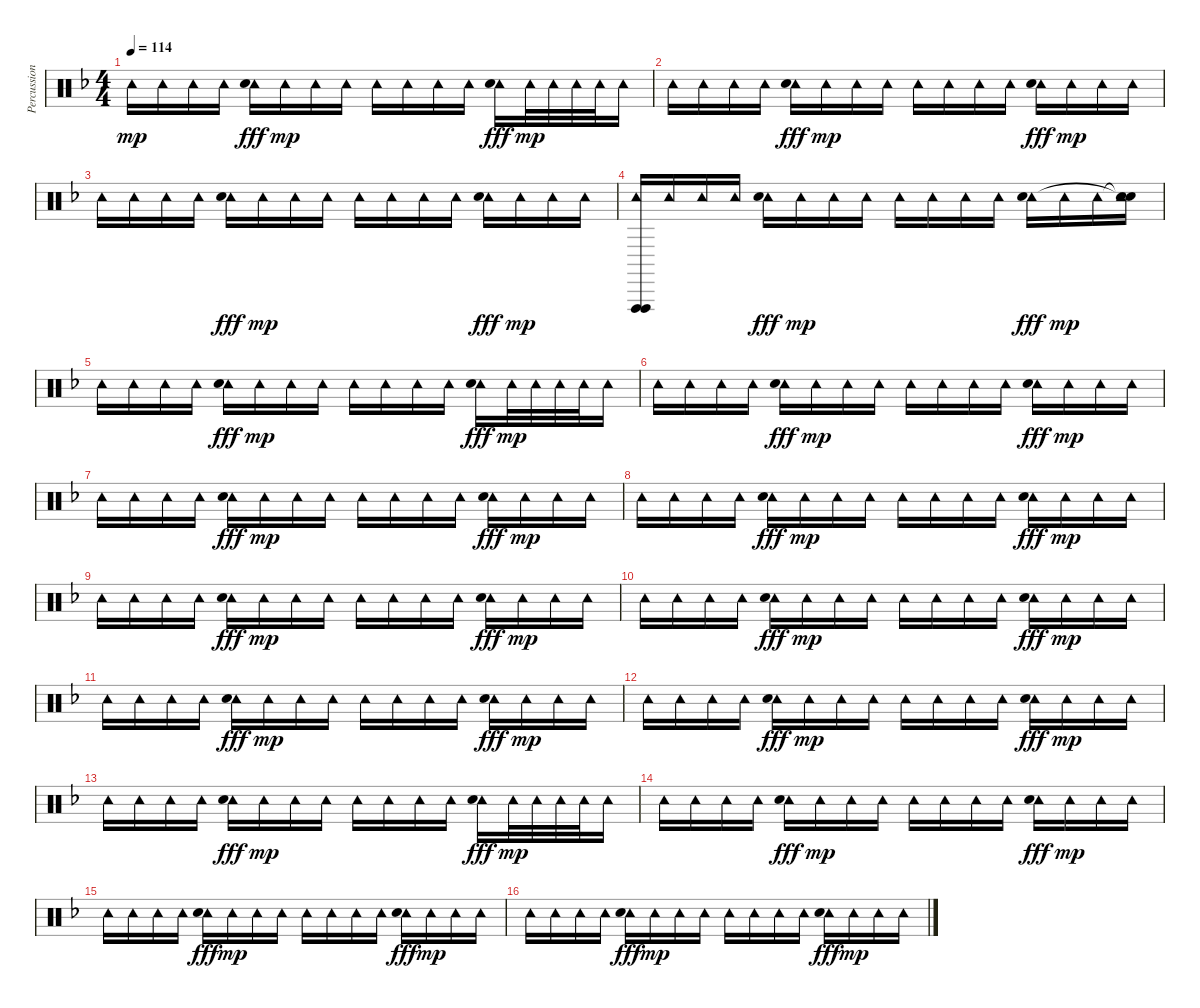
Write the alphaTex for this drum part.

\track ("Percussion" "Percussion") {instrument percussion}
\staff {score}
\articulation defaults
\ts (4 4)
\tempo 114
\clef neutral
\ks f "Tambourine (hit)".16{dy mp} "Tambourine (hit)".16 "Tambourine (hit)".16 "Tambourine (hit)".16
("Tambourine (hit)" "Hand Clap (hit)").16{dy fff} "Tambourine (hit)".16{dy mp} "Tambourine (hit)".16 "Tambourine (hit)".16 "Tambourine (hit)".16 "Tambourine (hit)".16 "Tambourine (hit)".16 "Tambourine (hit)".16 ("Tambourine (hit)" "Hand Clap (hit)").16{dy fff} "Tambourine (hit)".32{dy mp} "Tambourine (hit)".32 "Tambourine (hit)".32 "Tambourine (hit)".32 "Tambourine (hit)".16 |
"Tambourine (hit)".16 "Tambourine (hit)".16 "Tambourine (hit)".16 "Tambourine (hit)".16 ("Tambourine (hit)" "Hand Clap (hit)").16{dy fff} "Tambourine (hit)".16{dy mp} "Tambourine (hit)".16 "Tambourine (hit)".16 "Tambourine (hit)".16 "Tambourine (hit)".16 "Tambourine (hit)".16 "Tambourine (hit)".16 ("Tambourine (hit)" "Hand Clap (hit)").16{dy fff} "Tambourine (hit)".16{dy mp} "Tambourine (hit)".16 "Tambourine (hit)".16 |
"Tambourine (hit)".16 "Tambourine (hit)".16 "Tambourine (hit)".16 "Tambourine (hit)".16 ("Tambourine (hit)" "Hand Clap (hit)").16{dy fff} "Tambourine (hit)".16{dy mp} "Tambourine (hit)".16 "Tambourine (hit)".16 "Tambourine (hit)".16 "Tambourine (hit)".16 "Tambourine (hit)".16 "Tambourine (hit)".16 ("Tambourine (hit)" "Hand Clap (hit)").16{dy fff} "Tambourine (hit)".16{dy mp} "Tambourine (hit)".16 "Tambourine (hit)".16 |
("Vibraslap (hit)" "Vibraslap (hit)" "Tambourine (hit)").16 "Tambourine (hit)".16 "Tambourine (hit)".16 "Tambourine (hit)".16 ("Tambourine (hit)" "Hand Clap (hit)").16{dy fff} "Tambourine (hit)".16{dy mp} "Tambourine (hit)".16 "Tambourine (hit)".16 "Tambourine (hit)".16 "Tambourine (hit)".16 "Tambourine (hit)".16 "Tambourine (hit)".16 ("Tambourine (hit)" "Hand Clap (hit)").16{dy fff} "Tambourine (hit)".16{dy mp} "Tambourine (hit)".16 ("Snare (hit)"{t} "Snare (hit)"{t} "Tambourine (hit)").16 |
"Tambourine (hit)".16 "Tambourine (hit)".16 "Tambourine (hit)".16 "Tambourine (hit)".16 ("Tambourine (hit)" "Hand Clap (hit)").16{dy fff} "Tambourine (hit)".16{dy mp} "Tambourine (hit)".16 "Tambourine (hit)".16 "Tambourine (hit)".16 "Tambourine (hit)".16 "Tambourine (hit)".16 "Tambourine (hit)".16 ("Tambourine (hit)" "Hand Clap (hit)").16{dy fff} "Tambourine (hit)".32{dy mp} "Tambourine (hit)".32 "Tambourine (hit)".32 "Tambourine (hit)".32 "Tambourine (hit)".16 |
"Tambourine (hit)".16 "Tambourine (hit)".16 "Tambourine (hit)".16 "Tambourine (hit)".16 ("Tambourine (hit)" "Hand Clap (hit)").16{dy fff} "Tambourine (hit)".16{dy mp} "Tambourine (hit)".16 "Tambourine (hit)".16 "Tambourine (hit)".16 "Tambourine (hit)".16 "Tambourine (hit)".16 "Tambourine (hit)".16 ("Tambourine (hit)" "Hand Clap (hit)").16{dy fff} "Tambourine (hit)".16{dy mp} "Tambourine (hit)".16 "Tambourine (hit)".16 |
"Tambourine (hit)".16 "Tambourine (hit)".16 "Tambourine (hit)".16 "Tambourine (hit)".16 ("Tambourine (hit)" "Hand Clap (hit)").16{dy fff} "Tambourine (hit)".16{dy mp} "Tambourine (hit)".16 "Tambourine (hit)".16 "Tambourine (hit)".16 "Tambourine (hit)".16 "Tambourine (hit)".16 "Tambourine (hit)".16 ("Tambourine (hit)" "Hand Clap (hit)").16{dy fff} "Tambourine (hit)".16{dy mp} "Tambourine (hit)".16 "Tambourine (hit)".16 |
"Tambourine (hit)".16 "Tambourine (hit)".16 "Tambourine (hit)".16 "Tambourine (hit)".16 ("Tambourine (hit)" "Hand Clap (hit)").16{dy fff} "Tambourine (hit)".16{dy mp} "Tambourine (hit)".16 "Tambourine (hit)".16 "Tambourine (hit)".16 "Tambourine (hit)".16 "Tambourine (hit)".16 "Tambourine (hit)".16 ("Tambourine (hit)" "Hand Clap (hit)").16{dy fff} "Tambourine (hit)".16{dy mp} "Tambourine (hit)".16 "Tambourine (hit)".16 |
"Tambourine (hit)".16 "Tambourine (hit)".16 "Tambourine (hit)".16 "Tambourine (hit)".16 ("Tambourine (hit)" "Hand Clap (hit)").16{dy fff} "Tambourine (hit)".16{dy mp} "Tambourine (hit)".16 "Tambourine (hit)".16 "Tambourine (hit)".16 "Tambourine (hit)".16 "Tambourine (hit)".16 "Tambourine (hit)".16 ("Tambourine (hit)" "Hand Clap (hit)").16{dy fff} "Tambourine (hit)".16{dy mp} "Tambourine (hit)".16 "Tambourine (hit)".16 |
"Tambourine (hit)".16 "Tambourine (hit)".16 "Tambourine (hit)".16 "Tambourine (hit)".16 ("Tambourine (hit)" "Hand Clap (hit)").16{dy fff} "Tambourine (hit)".16{dy mp} "Tambourine (hit)".16 "Tambourine (hit)".16 "Tambourine (hit)".16 "Tambourine (hit)".16 "Tambourine (hit)".16 "Tambourine (hit)".16 ("Tambourine (hit)" "Hand Clap (hit)").16{dy fff} "Tambourine (hit)".16{dy mp} "Tambourine (hit)".16 "Tambourine (hit)".16 |
"Tambourine (hit)".16 "Tambourine (hit)".16 "Tambourine (hit)".16 "Tambourine (hit)".16 ("Tambourine (hit)" "Hand Clap (hit)").16{dy fff} "Tambourine (hit)".16{dy mp} "Tambourine (hit)".16 "Tambourine (hit)".16 "Tambourine (hit)".16 "Tambourine (hit)".16 "Tambourine (hit)".16 "Tambourine (hit)".16 ("Tambourine (hit)" "Hand Clap (hit)").16{dy fff} "Tambourine (hit)".16{dy mp} "Tambourine (hit)".16 "Tambourine (hit)".16 |
"Tambourine (hit)".16 "Tambourine (hit)".16 "Tambourine (hit)".16 "Tambourine (hit)".16 ("Tambourine (hit)" "Hand Clap (hit)").16{dy fff} "Tambourine (hit)".16{dy mp} "Tambourine (hit)".16 "Tambourine (hit)".16 "Tambourine (hit)".16 "Tambourine (hit)".16 "Tambourine (hit)".16 "Tambourine (hit)".16 ("Tambourine (hit)" "Hand Clap (hit)").16{dy fff} "Tambourine (hit)".16{dy mp} "Tambourine (hit)".16 "Tambourine (hit)".16 |
"Tambourine (hit)".16 "Tambourine (hit)".16 "Tambourine (hit)".16 "Tambourine (hit)".16 ("Tambourine (hit)" "Hand Clap (hit)").16{dy fff} "Tambourine (hit)".16{dy mp} "Tambourine (hit)".16 "Tambourine (hit)".16 "Tambourine (hit)".16 "Tambourine (hit)".16 "Tambourine (hit)".16 "Tambourine (hit)".16 ("Tambourine (hit)" "Hand Clap (hit)").16{dy fff} "Tambourine (hit)".32{dy mp} "Tambourine (hit)".32 "Tambourine (hit)".32 "Tambourine (hit)".32 "Tambourine (hit)".16 |
"Tambourine (hit)".16 "Tambourine (hit)".16 "Tambourine (hit)".16 "Tambourine (hit)".16 ("Tambourine (hit)" "Hand Clap (hit)").16{dy fff} "Tambourine (hit)".16{dy mp} "Tambourine (hit)".16 "Tambourine (hit)".16 "Tambourine (hit)".16 "Tambourine (hit)".16 "Tambourine (hit)".16 "Tambourine (hit)".16 ("Tambourine (hit)" "Hand Clap (hit)").16{dy fff} "Tambourine (hit)".16{dy mp} "Tambourine (hit)".16 "Tambourine (hit)".16 |
"Tambourine (hit)".16 "Tambourine (hit)".16 "Tambourine (hit)".16 "Tambourine (hit)".16 ("Tambourine (hit)" "Hand Clap (hit)").16{dy fff} "Tambourine (hit)".16{dy mp} "Tambourine (hit)".16 "Tambourine (hit)".16 "Tambourine (hit)".16 "Tambourine (hit)".16 "Tambourine (hit)".16 "Tambourine (hit)".16 ("Tambourine (hit)" "Hand Clap (hit)").16{dy fff} "Tambourine (hit)".16{dy mp} "Tambourine (hit)".16 "Tambourine (hit)".16 |
"Tambourine (hit)".16 "Tambourine (hit)".16 "Tambourine (hit)".16 "Tambourine (hit)".16 ("Tambourine (hit)" "Hand Clap (hit)").16{dy fff} "Tambourine (hit)".16{dy mp} "Tambourine (hit)".16 "Tambourine (hit)".16 "Tambourine (hit)".16 "Tambourine (hit)".16 "Tambourine (hit)".16 "Tambourine (hit)".16 ("Tambourine (hit)" "Hand Clap (hit)").16{dy fff} "Tambourine (hit)".16{dy mp} "Tambourine (hit)".16 "Tambourine (hit)".16
